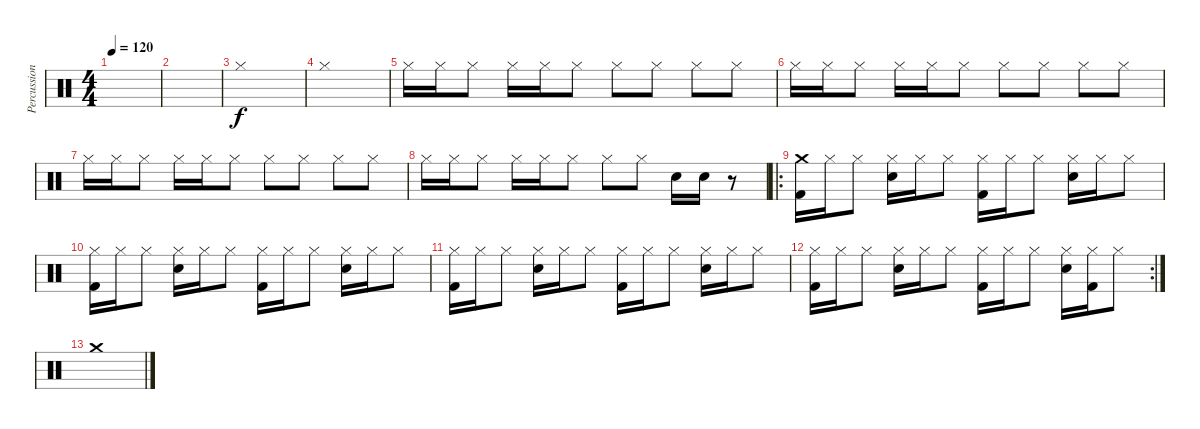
\track ("Percussions" "Percussion") {instrument percussion}
\staff {score}
\articulation defaults
\ts (4 4)
\tempo 120
\clef neutral
\ks c
|
|
"Hi-Hat (closed)".1 |
"Hi-Hat (closed)".1 |
"Hi-Hat (closed)".16 "Hi-Hat (closed)".16 "Hi-Hat (closed)".8 "Hi-Hat (closed)".16 "Hi-Hat (closed)".16 "Hi-Hat (closed)".8 "Hi-Hat (closed)".8 "Hi-Hat (closed)".8 "Hi-Hat (closed)".8 "Hi-Hat (closed)".8 |
"Hi-Hat (closed)".16 "Hi-Hat (closed)".16 "Hi-Hat (closed)".8 "Hi-Hat (closed)".16 "Hi-Hat (closed)".16 "Hi-Hat (closed)".8 "Hi-Hat (closed)".8 "Hi-Hat (closed)".8 "Hi-Hat (closed)".8 "Hi-Hat (closed)".8 |
"Hi-Hat (closed)".16 "Hi-Hat (closed)".16 "Hi-Hat (closed)".8 "Hi-Hat (closed)".16 "Hi-Hat (closed)".16 "Hi-Hat (closed)".8 "Hi-Hat (closed)".8 "Hi-Hat (closed)".8 "Hi-Hat (closed)".8 "Hi-Hat (closed)".8 |
"Hi-Hat (closed)".16 "Hi-Hat (closed)".16 "Hi-Hat (closed)".8 "Hi-Hat (closed)".16 "Hi-Hat (closed)".16 "Hi-Hat (closed)".8 "Hi-Hat (closed)".8 "Hi-Hat (closed)".8 "Electric Snare (hit)".16 "Electric Snare (hit)".16 r.8 |
\ro
("Crash medium (hit)" "Kick (hit) 2").16 "Hi-Hat (closed)".16 "Hi-Hat (closed)".8 ("Hi-Hat (closed)" "Snare (hit) 2").16 "Hi-Hat (closed)".16 "Hi-Hat (closed)".8 ("Hi-Hat (closed)" "Kick (hit) 2").16 "Hi-Hat (closed)".16 "Hi-Hat (closed)".8 ("Hi-Hat (closed)" "Snare (hit) 2").16 "Hi-Hat (closed)".16 "Hi-Hat (closed)".8 |
("Hi-Hat (closed)" "Kick (hit) 2").16 "Hi-Hat (closed)".16 "Hi-Hat (closed)".8 ("Hi-Hat (closed)" "Snare (hit) 2").16 "Hi-Hat (closed)".16 "Hi-Hat (closed)".8 ("Hi-Hat (closed)" "Kick (hit) 2").16 "Hi-Hat (closed)".16 "Hi-Hat (closed)".8 ("Hi-Hat (closed)" "Snare (hit) 2").16 "Hi-Hat (closed)".16 "Hi-Hat (closed)".8 |
("Hi-Hat (closed)" "Kick (hit) 2").16 "Hi-Hat (closed)".16 "Hi-Hat (closed)".8 ("Hi-Hat (closed)" "Snare (hit) 2").16 "Hi-Hat (closed)".16 "Hi-Hat (closed)".8 ("Hi-Hat (closed)" "Kick (hit) 2").16 "Hi-Hat (closed)".16 "Hi-Hat (closed)".8 ("Hi-Hat (closed)" "Snare (hit) 2").16 "Hi-Hat (closed)".16 "Hi-Hat (closed)".8 |
\rc 2
("Hi-Hat (closed)" "Kick (hit) 2").16 "Hi-Hat (closed)".16 "Hi-Hat (closed)".8 ("Hi-Hat (closed)" "Snare (hit) 2").16 "Hi-Hat (closed)".16 "Hi-Hat (closed)".8 ("Hi-Hat (closed)" "Kick (hit) 2").16 "Hi-Hat (closed)".16 "Hi-Hat (closed)".8 ("Hi-Hat (closed)" "Snare (hit) 2").16 ("Hi-Hat (closed)" "Kick (hit) 2").16 "Hi-Hat (closed)".8 |
"Crash medium (hit)".1
